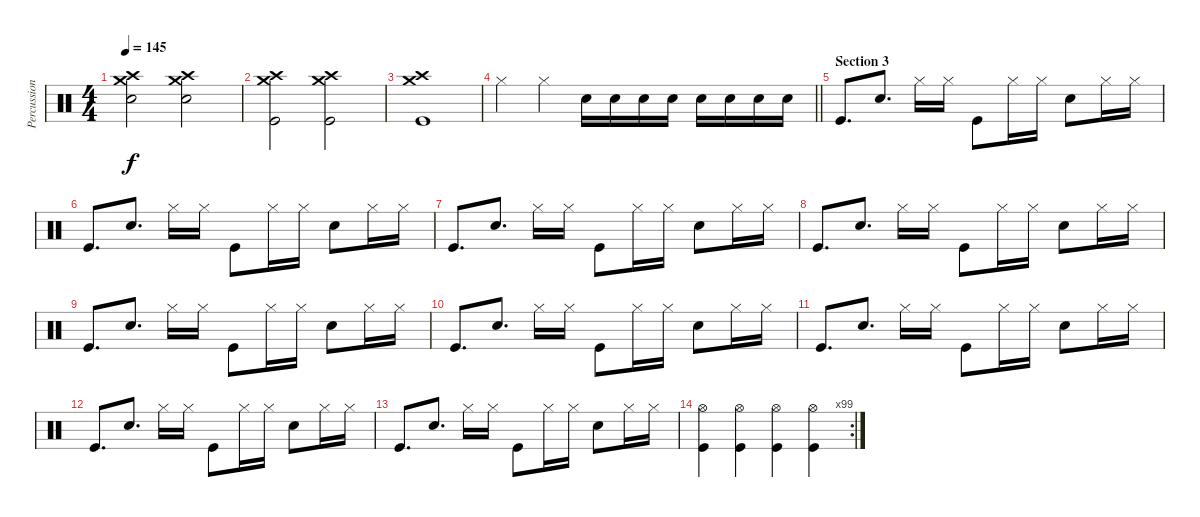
\track ("Percussion" "Percussion") {instrument percussion}
\staff {score}
\articulation defaults
\ts (4 4)
\tempo 145
\clef neutral
\ks c
("Crash high (hit)" "Crash medium (hit)" "Snare (hit) 2").2{dy f} ("Crash high (hit)" "Crash medium (hit)" "Snare (hit) 2").2 |
("Crash high (hit)" "Crash medium (hit)" "Kick (hit)").2 ("Crash high (hit)" "Crash medium (hit)" "Kick (hit)").2 |
("Crash high (hit)" "Crash medium (hit)" "Kick (hit)").1 |
\barLineRight lightlight "Hi-Hat (closed)".4 "Hi-Hat (closed)".4 "Snare (hit) 2".16 "Snare (hit) 2".16 "Snare (hit) 2".16 "Snare (hit) 2".16 "Electric Snare (hit)".16 "Electric Snare (hit)".16 "Snare (hit) 2".16 "Snare (hit) 2".16
|
\section ("" "Section 3")
"Kick (hit)".8{d} "Snare (hit) 2".8{d} "Hi-Hat (closed)".16 "Hi-Hat (closed)".16 "Kick (hit)".8 "Hi-Hat (closed)".16 "Hi-Hat (closed)".16 "Snare (hit) 2".8 "Hi-Hat (closed)".16 "Hi-Hat (closed)".16 |
"Kick (hit)".8{d} "Snare (hit) 2".8{d} "Hi-Hat (closed)".16 "Hi-Hat (closed)".16 "Kick (hit)".8 "Hi-Hat (closed)".16 "Hi-Hat (closed)".16 "Snare (hit) 2".8 "Hi-Hat (closed)".16 "Hi-Hat (closed)".16 |
"Kick (hit)".8{d} "Snare (hit) 2".8{d} "Hi-Hat (closed)".16 "Hi-Hat (closed)".16 "Kick (hit)".8 "Hi-Hat (closed)".16 "Hi-Hat (closed)".16 "Snare (hit) 2".8 "Hi-Hat (closed)".16 "Hi-Hat (closed)".16 |
"Kick (hit)".8{d} "Snare (hit) 2".8{d} "Hi-Hat (closed)".16 "Hi-Hat (closed)".16 "Kick (hit)".8 "Hi-Hat (closed)".16 "Hi-Hat (closed)".16 "Snare (hit) 2".8 "Hi-Hat (closed)".16 "Hi-Hat (closed)".16 |
"Kick (hit)".8{d} "Snare (hit) 2".8{d} "Hi-Hat (closed)".16 "Hi-Hat (closed)".16 "Kick (hit)".8 "Hi-Hat (closed)".16 "Hi-Hat (closed)".16 "Snare (hit) 2".8 "Hi-Hat (closed)".16 "Hi-Hat (closed)".16 |
"Kick (hit)".8{d} "Snare (hit) 2".8{d} "Hi-Hat (closed)".16 "Hi-Hat (closed)".16 "Kick (hit)".8 "Hi-Hat (closed)".16 "Hi-Hat (closed)".16 "Snare (hit) 2".8 "Hi-Hat (closed)".16 "Hi-Hat (closed)".16 |
"Kick (hit)".8{d} "Snare (hit) 2".8{d} "Hi-Hat (closed)".16 "Hi-Hat (closed)".16 "Kick (hit)".8 "Hi-Hat (closed)".16 "Hi-Hat (closed)".16 "Snare (hit) 2".8 "Hi-Hat (closed)".16 "Hi-Hat (closed)".16 |
"Kick (hit)".8{d} "Snare (hit) 2".8{d} "Hi-Hat (closed)".16 "Hi-Hat (closed)".16 "Kick (hit)".8 "Hi-Hat (closed)".16 "Hi-Hat (closed)".16 "Snare (hit) 2".8 "Hi-Hat (closed)".16 "Hi-Hat (closed)".16 |
"Kick (hit)".8{d} "Snare (hit) 2".8{d} "Hi-Hat (closed)".16 "Hi-Hat (closed)".16 "Kick (hit)".8 "Hi-Hat (closed)".16 "Hi-Hat (closed)".16 "Snare (hit) 2".8 "Hi-Hat (closed)".16 "Hi-Hat (closed)".16 |
\rc 99
("Hi-Hat (open)" "Kick (hit)").4 ("Hi-Hat (open)" "Kick (hit)").4 ("Hi-Hat (open)" "Kick (hit)").4 ("Hi-Hat (open)" "Kick (hit)").4
